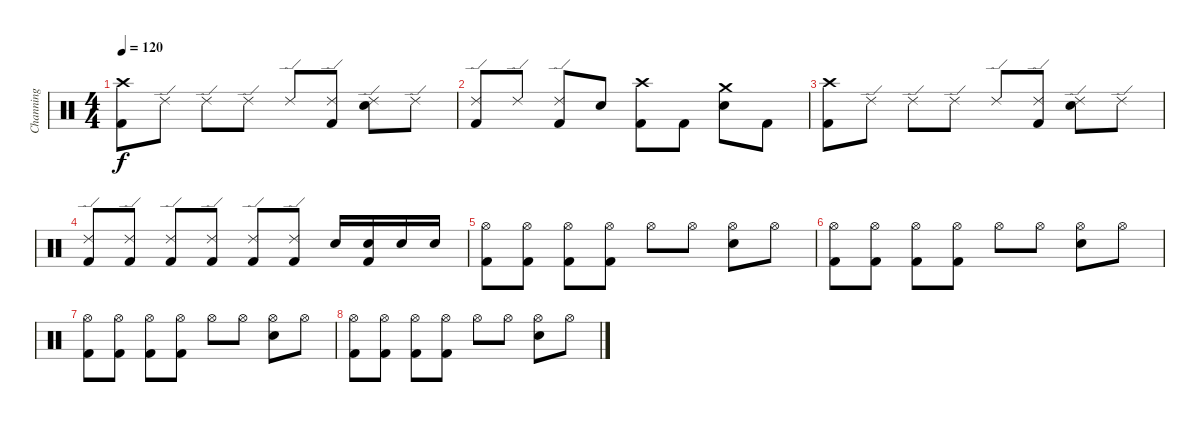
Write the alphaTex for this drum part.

\track ("Channing" "Channing") {instrument percussion}
\staff {score}
\articulation defaults
\ts (4 4)
\tempo 120
\clef neutral
\ks c
("Crash high (hit)" "Kick (hit) 2").8{dy f} "Ride (edge) 2".8 "Ride (edge) 2".8 "Ride (edge) 2".8 "Ride (edge) 2".8 ("Ride (edge) 2" "Kick (hit) 2").8 ("Ride (edge) 2" "Snare (hit) 2").8 "Ride (edge) 2".8 |
("Ride (edge) 2" "Kick (hit) 2").8 "Ride (edge) 2".8 ("Ride (edge) 2" "Kick (hit) 2").8 "Snare (hit) 2".8 ("Crash high (hit)" "Kick (hit) 2").8 "Kick (hit) 2".8 ("Crash medium (hit)" "Snare (hit) 2").8 "Kick (hit) 2".8 |
("Crash high (hit)" "Kick (hit) 2").8 "Ride (edge) 2".8 "Ride (edge) 2".8 "Ride (edge) 2".8 "Ride (edge) 2".8 ("Ride (edge) 2" "Kick (hit) 2").8 ("Ride (edge) 2" "Snare (hit) 2").8 "Ride (edge) 2".8 |
("Ride (edge) 2" "Kick (hit) 2").8 ("Ride (edge) 2" "Kick (hit) 2").8 ("Ride (edge) 2" "Kick (hit) 2").8 ("Ride (edge) 2" "Kick (hit) 2").8 ("Ride (edge) 2" "Kick (hit) 2").8 ("Ride (edge) 2" "Kick (hit) 2").8 "Snare (hit) 2".16 ("Snare (hit) 2" "Kick (hit) 2").16 "Snare (hit) 2".16 "Snare (hit) 2".16 |
("Hi-Hat (open)" "Kick (hit) 2").8 ("Hi-Hat (open)" "Kick (hit) 2").8 ("Hi-Hat (open)" "Kick (hit) 2").8 ("Hi-Hat (open)" "Kick (hit) 2").8 "Hi-Hat (open)".8 "Hi-Hat (open)".8 ("Hi-Hat (open)" "Snare (hit) 2").8 "Hi-Hat (open)".8 |
("Hi-Hat (open)" "Kick (hit) 2").8 ("Hi-Hat (open)" "Kick (hit) 2").8 ("Hi-Hat (open)" "Kick (hit) 2").8 ("Hi-Hat (open)" "Kick (hit) 2").8 "Hi-Hat (open)".8 "Hi-Hat (open)".8 ("Hi-Hat (open)" "Snare (hit) 2").8 "Hi-Hat (open)".8 |
("Hi-Hat (open)" "Kick (hit) 2").8 ("Hi-Hat (open)" "Kick (hit) 2").8 ("Hi-Hat (open)" "Kick (hit) 2").8 ("Hi-Hat (open)" "Kick (hit) 2").8 "Hi-Hat (open)".8 "Hi-Hat (open)".8 ("Hi-Hat (open)" "Snare (hit) 2").8 "Hi-Hat (open)".8 |
("Hi-Hat (open)" "Kick (hit) 2").8 ("Hi-Hat (open)" "Kick (hit) 2").8 ("Hi-Hat (open)" "Kick (hit) 2").8 ("Hi-Hat (open)" "Kick (hit) 2").8 "Hi-Hat (open)".8 "Hi-Hat (open)".8 ("Hi-Hat (open)" "Snare (hit) 2").8 "Hi-Hat (open)".8
